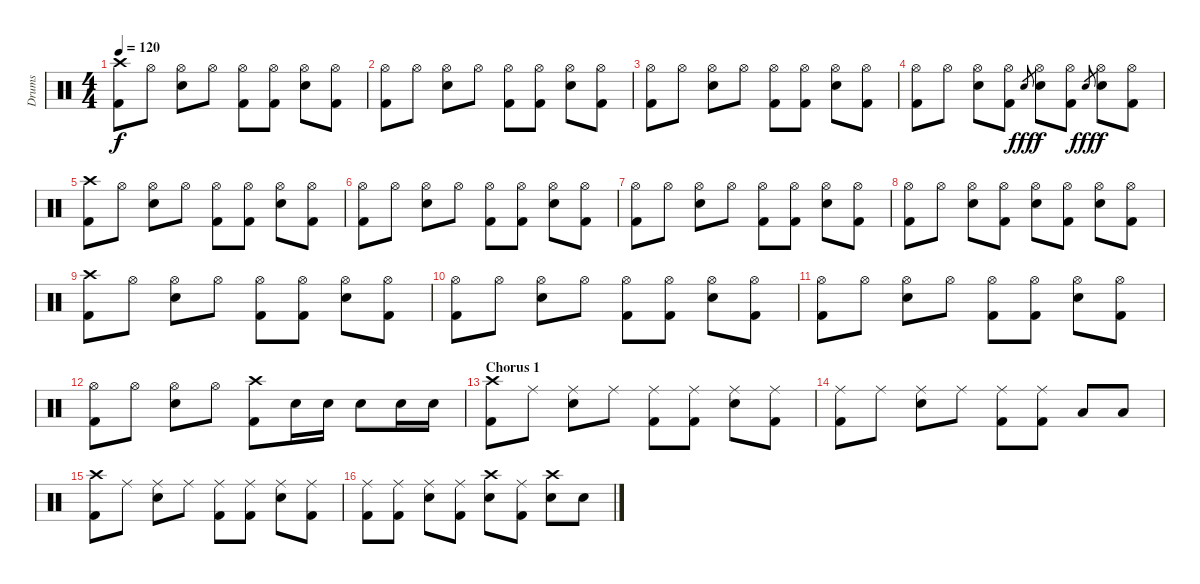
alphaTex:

\track ("Drums" "Drums") {instrument percussion}
\staff {score}
\articulation defaults
\ts (4 4)
\tempo 120
\clef neutral
\ks c
("Crash high (hit)" "Kick (hit) 2").8{dy f} "Hi-Hat (open)".8 ("Hi-Hat (open)" "Electric Snare (hit)").8 "Hi-Hat (open)".8 ("Hi-Hat (open)" "Kick (hit) 2").8 ("Hi-Hat (open)" "Kick (hit) 2").8 ("Hi-Hat (open)" "Electric Snare (hit)").8 ("Hi-Hat (open)" "Kick (hit) 2").8 |
("Hi-Hat (open)" "Kick (hit) 2").8 "Hi-Hat (open)".8 ("Hi-Hat (open)" "Electric Snare (hit)").8 "Hi-Hat (open)".8 ("Hi-Hat (open)" "Kick (hit) 2").8 ("Hi-Hat (open)" "Kick (hit) 2").8 ("Hi-Hat (open)" "Electric Snare (hit)").8 ("Hi-Hat (open)" "Kick (hit) 2").8 |
("Hi-Hat (open)" "Kick (hit) 2").8 "Hi-Hat (open)".8 ("Hi-Hat (open)" "Electric Snare (hit)").8 "Hi-Hat (open)".8 ("Hi-Hat (open)" "Kick (hit) 2").8 ("Hi-Hat (open)" "Kick (hit) 2").8 ("Hi-Hat (open)" "Electric Snare (hit)").8 ("Hi-Hat (open)" "Kick (hit) 2").8 |
("Hi-Hat (open)" "Kick (hit) 2").8 "Hi-Hat (open)".8 ("Hi-Hat (open)" "Electric Snare (hit)").8 ("Hi-Hat (open)" "Kick (hit) 2").8 "Electric Snare (hit)".8{gr dy fff} ("Hi-Hat (open)" "Electric Snare (hit)").8{dy f} ("Hi-Hat (open)" "Kick (hit) 2").8 "Electric Snare (hit)".8{gr dy fff} ("Hi-Hat (open)" "Electric Snare (hit)").8{dy f} ("Hi-Hat (open)" "Kick (hit) 2").8 |
("Crash high (hit)" "Kick (hit) 2").8 "Hi-Hat (open)".8 ("Hi-Hat (open)" "Electric Snare (hit)").8 "Hi-Hat (open)".8 ("Hi-Hat (open)" "Kick (hit) 2").8 ("Hi-Hat (open)" "Kick (hit) 2").8 ("Hi-Hat (open)" "Electric Snare (hit)").8 ("Hi-Hat (open)" "Kick (hit) 2").8 |
("Hi-Hat (open)" "Kick (hit) 2").8 "Hi-Hat (open)".8 ("Hi-Hat (open)" "Electric Snare (hit)").8 "Hi-Hat (open)".8 ("Hi-Hat (open)" "Kick (hit) 2").8 ("Hi-Hat (open)" "Kick (hit) 2").8 ("Hi-Hat (open)" "Electric Snare (hit)").8 ("Hi-Hat (open)" "Kick (hit) 2").8 |
("Hi-Hat (open)" "Kick (hit) 2").8 "Hi-Hat (open)".8 ("Hi-Hat (open)" "Electric Snare (hit)").8 "Hi-Hat (open)".8 ("Hi-Hat (open)" "Kick (hit) 2").8 ("Hi-Hat (open)" "Kick (hit) 2").8 ("Hi-Hat (open)" "Electric Snare (hit)").8 ("Hi-Hat (open)" "Kick (hit) 2").8 |
("Hi-Hat (open)" "Kick (hit) 2").8 "Hi-Hat (open)".8 ("Hi-Hat (open)" "Electric Snare (hit)").8 ("Hi-Hat (open)" "Kick (hit) 2").8 ("Hi-Hat (open)" "Electric Snare (hit)").8 ("Hi-Hat (open)" "Kick (hit) 2").8 ("Hi-Hat (open)" "Electric Snare (hit)").8 ("Hi-Hat (open)" "Kick (hit) 2").8 |
("Crash high (hit)" "Kick (hit) 2").8 "Hi-Hat (open)".8 ("Hi-Hat (open)" "Electric Snare (hit)").8 "Hi-Hat (open)".8 ("Hi-Hat (open)" "Kick (hit) 2").8 ("Hi-Hat (open)" "Kick (hit) 2").8 ("Hi-Hat (open)" "Electric Snare (hit)").8 ("Hi-Hat (open)" "Kick (hit) 2").8 |
("Hi-Hat (open)" "Kick (hit) 2").8 "Hi-Hat (open)".8 ("Hi-Hat (open)" "Electric Snare (hit)").8 "Hi-Hat (open)".8 ("Hi-Hat (open)" "Kick (hit) 2").8 ("Hi-Hat (open)" "Kick (hit) 2").8 ("Hi-Hat (open)" "Electric Snare (hit)").8 ("Hi-Hat (open)" "Kick (hit) 2").8 |
("Hi-Hat (open)" "Kick (hit) 2").8 "Hi-Hat (open)".8 ("Hi-Hat (open)" "Electric Snare (hit)").8 "Hi-Hat (open)".8 ("Hi-Hat (open)" "Kick (hit) 2").8 ("Hi-Hat (open)" "Kick (hit) 2").8 ("Hi-Hat (open)" "Electric Snare (hit)").8 ("Hi-Hat (open)" "Kick (hit) 2").8 |
("Hi-Hat (open)" "Kick (hit) 2").8 "Hi-Hat (open)".8 ("Hi-Hat (open)" "Electric Snare (hit)").8 "Hi-Hat (open)".8 ("Crash high (hit)" "Kick (hit) 2").8 "Electric Snare (hit)".16 "Electric Snare (hit)".16 "Electric Snare (hit)".8 "Electric Snare (hit)".16 "Electric Snare (hit)".16 |
\section ("" "Chorus 1")
("Crash high (hit)" "Kick (hit) 2").8 "Ride (middle)".8 ("Ride (middle)" "Electric Snare (hit)").8 "Ride (middle)".8 ("Ride (middle)" "Kick (hit) 2").8 ("Ride (middle)" "Kick (hit) 2").8 ("Ride (middle)" "Electric Snare (hit)").8 ("Ride (middle)" "Kick (hit) 2").8 |
("Ride (middle)" "Kick (hit) 2").8 "Ride (middle)".8 ("Ride (middle)" "Electric Snare (hit)").8 "Ride (middle)".8 ("Ride (middle)" "Kick (hit) 2").8 ("Ride (middle)" "Kick (hit) 2").8 "Low Floor Tom (hit)".8 "Low Floor Tom (hit)".8 |
("Crash high (hit)" "Kick (hit) 2").8 "Ride (middle)".8 ("Ride (middle)" "Electric Snare (hit)").8 "Ride (middle)".8 ("Ride (middle)" "Kick (hit) 2").8 ("Ride (middle)" "Kick (hit) 2").8 ("Ride (middle)" "Electric Snare (hit)").8 ("Ride (middle)" "Kick (hit) 2").8 |
("Ride (middle)" "Kick (hit) 2").8 ("Ride (middle)" "Kick (hit) 2").8 ("Ride (middle)" "Electric Snare (hit)").8 ("Ride (middle)" "Kick (hit) 2").8 ("Crash high (hit)" "Electric Snare (hit)").8 ("Ride (middle)" "Kick (hit) 2").8 ("Crash high (hit)" "Electric Snare (hit)").8 "Electric Snare (hit)".8
